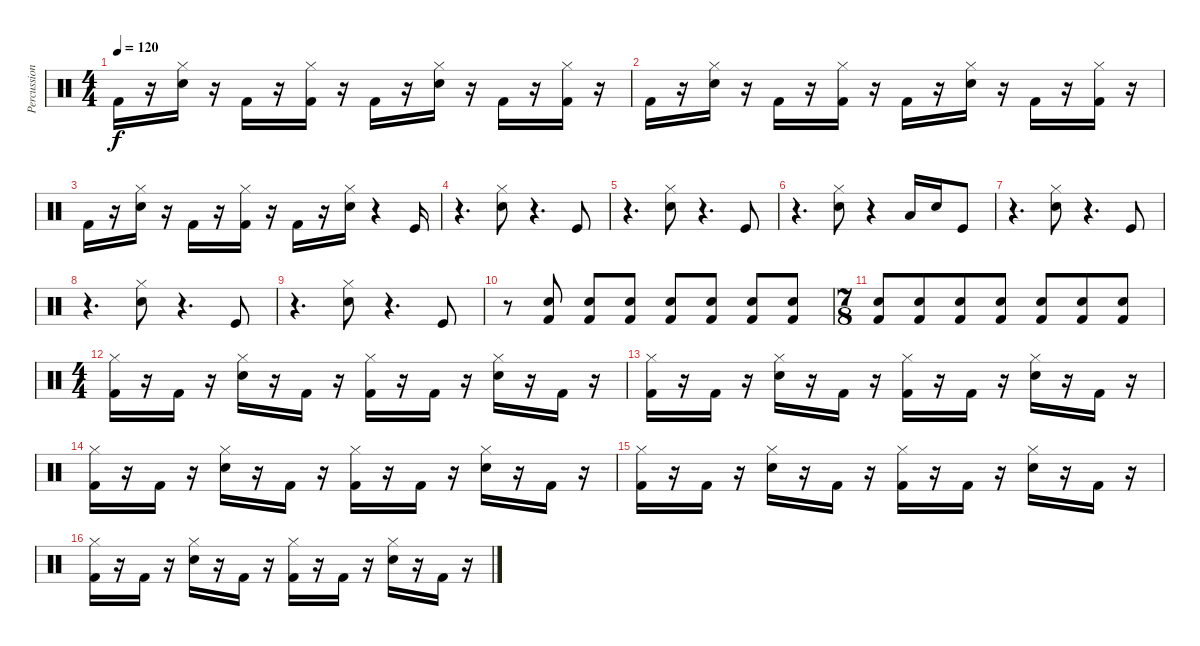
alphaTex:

\track ("Percussion" "Percussion") {instrument percussion}
\staff {score}
\articulation defaults
\ts (4 4)
\tempo 120
\clef neutral
\ks c "Kick (hit) 2".16{dy f}
r.16 ("Snare (hit) 2" "Hi-Hat (closed)").16 r.16 "Kick (hit) 2".16 r.16 ("Kick (hit) 2" "Hi-Hat (closed)").16 r.16 "Kick (hit) 2".16 r.16 ("Snare (hit) 2" "Hi-Hat (closed)").16 r.16 "Kick (hit) 2".16 r.16 ("Kick (hit) 2" "Hi-Hat (closed)").16 r.16 |
"Kick (hit) 2".16 r.16 ("Snare (hit) 2" "Hi-Hat (closed)").16 r.16 "Kick (hit) 2".16 r.16 ("Kick (hit) 2" "Hi-Hat (closed)").16 r.16 "Kick (hit) 2".16 r.16 ("Snare (hit) 2" "Hi-Hat (closed)").16 r.16 "Kick (hit) 2".16 r.16 ("Kick (hit) 2" "Hi-Hat (closed)").16 r.16 |
"Kick (hit) 2".16 r.16 ("Snare (hit) 2" "Hi-Hat (closed)").16 r.16 "Kick (hit) 2".16 r.16 ("Kick (hit) 2" "Hi-Hat (closed)").16 r.16 "Kick (hit) 2".16 r.16 ("Snare (hit) 2" "Hi-Hat (closed)").16 r.4 "Kick (hit)".16 |
r.4{d} ("Snare (hit) 2" "Hi-Hat (closed)").8 r.4{d} "Kick (hit)".8 |
r.4{d} ("Snare (hit) 2" "Hi-Hat (closed)").8 r.4{d} "Kick (hit)".8 |
r.4{d} ("Snare (hit) 2" "Hi-Hat (closed)").8 r.4 "Low Floor Tom (hit)".16 "Snare (hit) 2".16 "Kick (hit)".8 |
r.4{d} ("Snare (hit) 2" "Hi-Hat (closed)").8 r.4{d} "Kick (hit)".8 |
r.4{d} ("Snare (hit) 2" "Hi-Hat (closed)").8 r.4{d} "Kick (hit)".8 |
r.4{d} ("Snare (hit) 2" "Hi-Hat (closed)").8 r.4{d} "Kick (hit)".8 |
r.8 ("Kick (hit) 2" "Snare (hit) 2").8 ("Kick (hit) 2" "Snare (hit) 2").8 ("Kick (hit) 2" "Snare (hit) 2").8 ("Kick (hit) 2" "Snare (hit) 2").8 ("Kick (hit) 2" "Snare (hit) 2").8 ("Kick (hit) 2" "Snare (hit) 2").8 ("Kick (hit) 2" "Snare (hit) 2").8 |
\ts (7 8)
("Kick (hit) 2" "Snare (hit) 2").8 ("Kick (hit) 2" "Snare (hit) 2").8 ("Kick (hit) 2" "Snare (hit) 2").8 ("Kick (hit) 2" "Snare (hit) 2").8 ("Kick (hit) 2" "Snare (hit) 2").8 ("Kick (hit) 2" "Snare (hit) 2").8 ("Kick (hit) 2" "Snare (hit) 2").8 |
\ts (4 4)
("Kick (hit) 2" "Hi-Hat (closed)").16 r.16 "Kick (hit) 2".16 r.16 ("Snare (hit) 2" "Hi-Hat (closed)").16 r.16 "Kick (hit) 2".16 r.16 ("Kick (hit) 2" "Hi-Hat (closed)").16 r.16 "Kick (hit) 2".16 r.16 ("Snare (hit) 2" "Hi-Hat (closed)").16 r.16 "Kick (hit) 2".16 r.16 |
("Kick (hit) 2" "Hi-Hat (closed)").16 r.16 "Kick (hit) 2".16 r.16 ("Snare (hit) 2" "Hi-Hat (closed)").16 r.16 "Kick (hit) 2".16 r.16 ("Kick (hit) 2" "Hi-Hat (closed)").16 r.16 "Kick (hit) 2".16 r.16 ("Snare (hit) 2" "Hi-Hat (closed)").16 r.16 "Kick (hit) 2".16 r.16 |
("Kick (hit) 2" "Hi-Hat (closed)").16 r.16 "Kick (hit) 2".16 r.16 ("Snare (hit) 2" "Hi-Hat (closed)").16 r.16 "Kick (hit) 2".16 r.16 ("Kick (hit) 2" "Hi-Hat (closed)").16 r.16 "Kick (hit) 2".16 r.16 ("Snare (hit) 2" "Hi-Hat (closed)").16 r.16 "Kick (hit) 2".16 r.16 |
("Kick (hit) 2" "Hi-Hat (closed)").16 r.16 "Kick (hit) 2".16 r.16 ("Snare (hit) 2" "Hi-Hat (closed)").16 r.16 "Kick (hit) 2".16 r.16 ("Kick (hit) 2" "Hi-Hat (closed)").16 r.16 "Kick (hit) 2".16 r.16 ("Snare (hit) 2" "Hi-Hat (closed)").16 r.16 "Kick (hit) 2".16 r.16 |
("Kick (hit) 2" "Hi-Hat (closed)").16 r.16 "Kick (hit) 2".16 r.16 ("Snare (hit) 2" "Hi-Hat (closed)").16 r.16 "Kick (hit) 2".16 r.16 ("Kick (hit) 2" "Hi-Hat (closed)").16 r.16 "Kick (hit) 2".16 r.16 ("Snare (hit) 2" "Hi-Hat (closed)").16 r.16 "Kick (hit) 2".16 r.16
